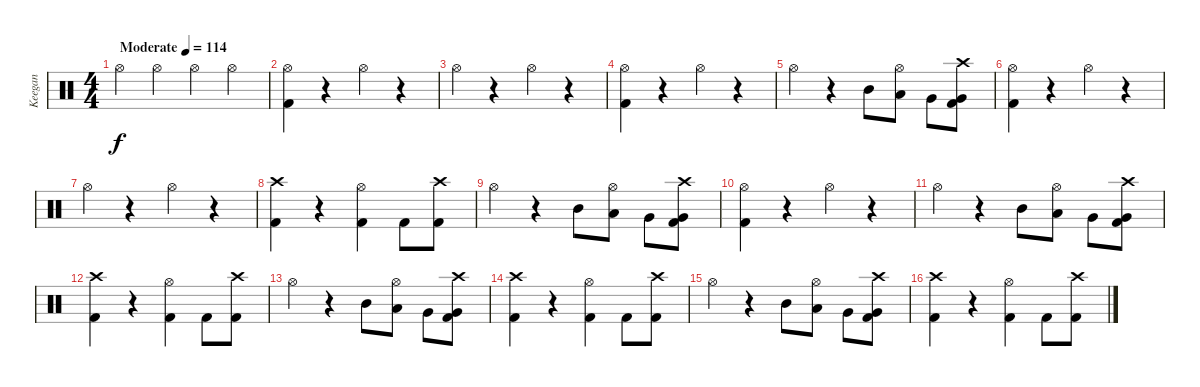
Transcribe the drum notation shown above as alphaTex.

\track ("Keegan" "Keegan") {instrument percussion}
\staff {score}
\articulation defaults
\ts (4 4)
\tempo (114 "Moderate")
\clef neutral
\ks c "Hi-Hat (open)".4{dy f} "Hi-Hat (open)".4 "Hi-Hat (open)".4 "Hi-Hat (open)".4
|
("Hi-Hat (open)" "Kick (hit) 2").4 r.4 "Hi-Hat (open)".4 r.4 |
"Hi-Hat (open)".4 r.4 "Hi-Hat (open)".4 r.4 |
("Hi-Hat (open)" "Kick (hit) 2").4 r.4 "Hi-Hat (open)".4 r.4 |
"Hi-Hat (open)".4 r.4 "Mid Tom (hit)".8 ("Hi-Hat (open)" "Low Tom (hit)").8 "Very Low Tom (hit)".8 ("Crash high (hit)" "Very Low Tom (hit)" "Kick (hit) 2").8 |
("Hi-Hat (open)" "Kick (hit) 2").4 r.4 "Hi-Hat (open)".4 r.4 |
"Hi-Hat (open)".4 r.4 "Hi-Hat (open)".4 r.4 |
("Crash high (hit)" "Kick (hit) 2").4 r.4 ("Hi-Hat (open)" "Kick (hit) 2").4 "Kick (hit) 2".8 ("Crash high (hit)" "Kick (hit) 2").8 |
"Hi-Hat (open)".4 r.4 "Mid Tom (hit)".8 ("Hi-Hat (open)" "Low Tom (hit)").8 "Very Low Tom (hit)".8 ("Crash high (hit)" "Very Low Tom (hit)" "Kick (hit) 2").8 |
("Kick (hit) 2" "Hi-Hat (open)").4 r.4 "Hi-Hat (open)".4 r.4 |
"Hi-Hat (open)".4 r.4 "Mid Tom (hit)".8 ("Hi-Hat (open)" "Low Tom (hit)").8 "Very Low Tom (hit)".8 ("Crash high (hit)" "Very Low Tom (hit)" "Kick (hit) 2").8 |
("Kick (hit) 2" "Crash high (hit)").4 r.4 ("Kick (hit) 2" "Hi-Hat (open)").4 "Kick (hit) 2".8 ("Kick (hit) 2" "Crash high (hit)").8 |
"Hi-Hat (open)".4 r.4 "Mid Tom (hit)".8 ("Hi-Hat (open)" "Low Tom (hit)").8 "Very Low Tom (hit)".8 ("Crash high (hit)" "Very Low Tom (hit)" "Kick (hit) 2").8 |
("Kick (hit) 2" "Crash high (hit)").4 r.4 ("Kick (hit) 2" "Hi-Hat (open)").4 "Kick (hit) 2".8 ("Kick (hit) 2" "Crash high (hit)").8 |
"Hi-Hat (open)".4 r.4 "Mid Tom (hit)".8 ("Hi-Hat (open)" "Low Tom (hit)").8 "Very Low Tom (hit)".8 ("Crash high (hit)" "Very Low Tom (hit)" "Kick (hit) 2").8 |
("Kick (hit) 2" "Crash high (hit)").4 r.4 ("Kick (hit) 2" "Hi-Hat (open)").4 "Kick (hit) 2".8 ("Kick (hit) 2" "Crash high (hit)").8
